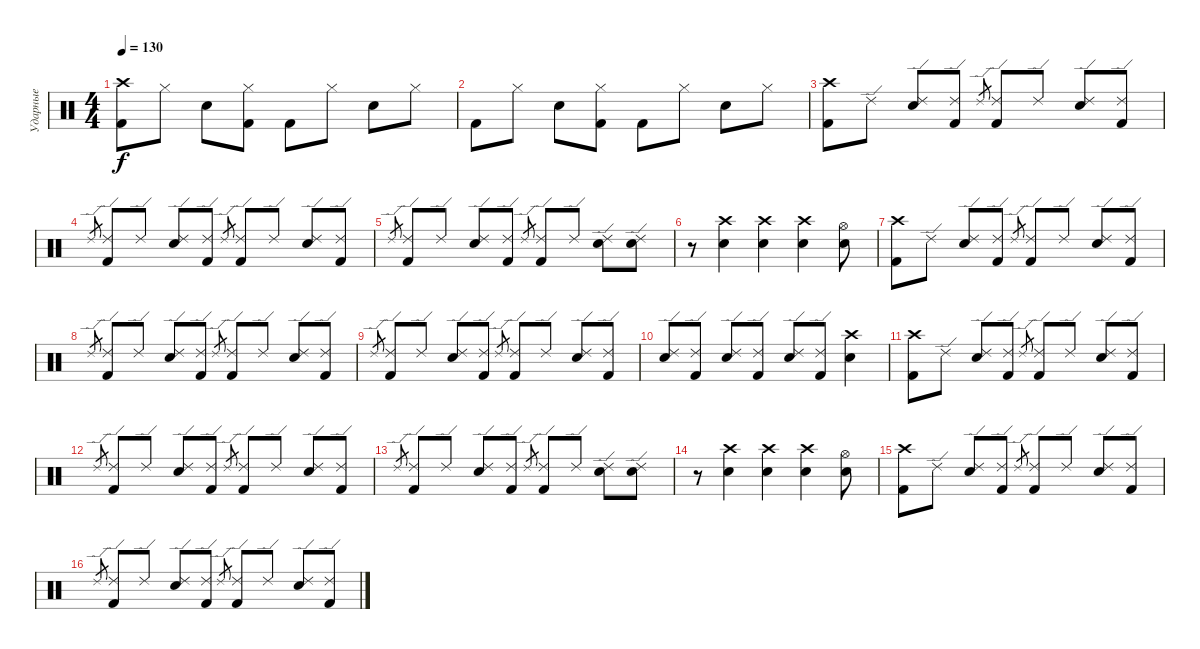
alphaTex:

\track ("Ударные" "Ударные") {instrument percussion}
\staff {score}
\articulation defaults
\ts (4 4)
\tempo 130
\clef neutral
\ks c
("Kick (hit) 2" "Crash high (hit)").8{dy f} "Hi-Hat (closed)".8 "Electric Snare (hit)".8 ("Kick (hit) 2" "Hi-Hat (closed)").8 "Kick (hit) 2".8 "Hi-Hat (closed)".8 "Electric Snare (hit)".8 "Hi-Hat (closed)".8 |
"Kick (hit) 2".8 "Hi-Hat (closed)".8 "Electric Snare (hit)".8 ("Kick (hit) 2" "Hi-Hat (closed)").8 "Kick (hit) 2".8 "Hi-Hat (closed)".8 "Electric Snare (hit)".8 "Hi-Hat (closed)".8 |
("Kick (hit) 2" "Crash high (hit)").8 "Ride (edge) 2".8 ("Electric Snare (hit)" "Ride (edge) 2").8 ("Kick (hit) 2" "Ride (edge) 2").8 "Ride (edge) 2".8{gr} ("Kick (hit) 2" "Ride (edge) 2").8 "Ride (edge) 2".8 ("Electric Snare (hit)" "Ride (edge) 2").8 ("Kick (hit) 2" "Ride (edge) 2").8 |
"Ride (edge) 2".8{gr} ("Kick (hit) 2" "Ride (edge) 2").8 "Ride (edge) 2".8 ("Electric Snare (hit)" "Ride (edge) 2").8 ("Kick (hit) 2" "Ride (edge) 2").8 "Ride (edge) 2".8{gr} ("Kick (hit) 2" "Ride (edge) 2").8 "Ride (edge) 2".8 ("Electric Snare (hit)" "Ride (edge) 2").8 ("Kick (hit) 2" "Ride (edge) 2").8 |
"Ride (edge) 2".8{gr} ("Kick (hit) 2" "Ride (edge) 2").8 "Ride (edge) 2".8 ("Electric Snare (hit)" "Ride (edge) 2").8 ("Kick (hit) 2" "Ride (edge) 2").8 "Ride (edge) 2".8{gr} ("Kick (hit) 2" "Ride (edge) 2").8 "Ride (edge) 2".8 ("Electric Snare (hit)" "Ride (edge) 2").8 ("Electric Snare (hit)" "Ride (edge) 2").8 |
r.8 ("Electric Snare (hit)" "Crash high (hit)").4 ("Electric Snare (hit)" "Crash high (hit)").4 ("Electric Snare (hit)" "Crash high (hit)").4 ("Electric Snare (hit)" "Hi-Hat (open)").8 |
("Kick (hit) 2" "Crash high (hit)").8 "Ride (edge) 2".8 ("Electric Snare (hit)" "Ride (edge) 2").8 ("Kick (hit) 2" "Ride (edge) 2").8 "Ride (edge) 2".8{gr} ("Kick (hit) 2" "Ride (edge) 2").8 "Ride (edge) 2".8 ("Electric Snare (hit)" "Ride (edge) 2").8 ("Kick (hit) 2" "Ride (edge) 2").8 |
"Ride (edge) 2".8{gr} ("Kick (hit) 2" "Ride (edge) 2").8 "Ride (edge) 2".8 ("Electric Snare (hit)" "Ride (edge) 2").8 ("Kick (hit) 2" "Ride (edge) 2").8 "Ride (edge) 2".8{gr} ("Kick (hit) 2" "Ride (edge) 2").8 "Ride (edge) 2".8 ("Electric Snare (hit)" "Ride (edge) 2").8 ("Kick (hit) 2" "Ride (edge) 2").8 |
"Ride (edge) 2".8{gr} ("Kick (hit) 2" "Ride (edge) 2").8 "Ride (edge) 2".8 ("Electric Snare (hit)" "Ride (edge) 2").8 ("Kick (hit) 2" "Ride (edge) 2").8 "Ride (edge) 2".8{gr} ("Kick (hit) 2" "Ride (edge) 2").8 "Ride (edge) 2".8 ("Electric Snare (hit)" "Ride (edge) 2").8 ("Kick (hit) 2" "Ride (edge) 2").8 |
("Electric Snare (hit)" "Ride (edge) 2").8 ("Kick (hit) 2" "Ride (edge) 2").8 ("Electric Snare (hit)" "Ride (edge) 2").8 ("Kick (hit) 2" "Ride (edge) 2").8 ("Electric Snare (hit)" "Ride (edge) 2").8 ("Kick (hit) 2" "Ride (edge) 2").8 ("Electric Snare (hit)" "Crash high (hit)").4 |
("Kick (hit) 2" "Crash high (hit)").8 "Ride (edge) 2".8 ("Electric Snare (hit)" "Ride (edge) 2").8 ("Kick (hit) 2" "Ride (edge) 2").8 "Ride (edge) 2".8{gr} ("Kick (hit) 2" "Ride (edge) 2").8 "Ride (edge) 2".8 ("Electric Snare (hit)" "Ride (edge) 2").8 ("Kick (hit) 2" "Ride (edge) 2").8 |
"Ride (edge) 2".8{gr} ("Kick (hit) 2" "Ride (edge) 2").8 "Ride (edge) 2".8 ("Electric Snare (hit)" "Ride (edge) 2").8 ("Kick (hit) 2" "Ride (edge) 2").8 "Ride (edge) 2".8{gr} ("Kick (hit) 2" "Ride (edge) 2").8 "Ride (edge) 2".8 ("Electric Snare (hit)" "Ride (edge) 2").8 ("Kick (hit) 2" "Ride (edge) 2").8 |
"Ride (edge) 2".8{gr} ("Kick (hit) 2" "Ride (edge) 2").8 "Ride (edge) 2".8 ("Electric Snare (hit)" "Ride (edge) 2").8 ("Kick (hit) 2" "Ride (edge) 2").8 "Ride (edge) 2".8{gr} ("Kick (hit) 2" "Ride (edge) 2").8 "Ride (edge) 2".8 ("Electric Snare (hit)" "Ride (edge) 2").8 ("Electric Snare (hit)" "Ride (edge) 2").8 |
r.8 ("Electric Snare (hit)" "Crash high (hit)").4 ("Electric Snare (hit)" "Crash high (hit)").4 ("Electric Snare (hit)" "Crash high (hit)").4 ("Electric Snare (hit)" "Hi-Hat (open)").8 |
("Kick (hit) 2" "Crash high (hit)").8 "Ride (edge) 2".8 ("Electric Snare (hit)" "Ride (edge) 2").8 ("Kick (hit) 2" "Ride (edge) 2").8 "Ride (edge) 2".8{gr} ("Kick (hit) 2" "Ride (edge) 2").8 "Ride (edge) 2".8 ("Electric Snare (hit)" "Ride (edge) 2").8 ("Kick (hit) 2" "Ride (edge) 2").8 |
"Ride (edge) 2".8{gr} ("Kick (hit) 2" "Ride (edge) 2").8 "Ride (edge) 2".8 ("Electric Snare (hit)" "Ride (edge) 2").8 ("Kick (hit) 2" "Ride (edge) 2").8 "Ride (edge) 2".8{gr} ("Kick (hit) 2" "Ride (edge) 2").8 "Ride (edge) 2".8 ("Electric Snare (hit)" "Ride (edge) 2").8 ("Kick (hit) 2" "Ride (edge) 2").8
